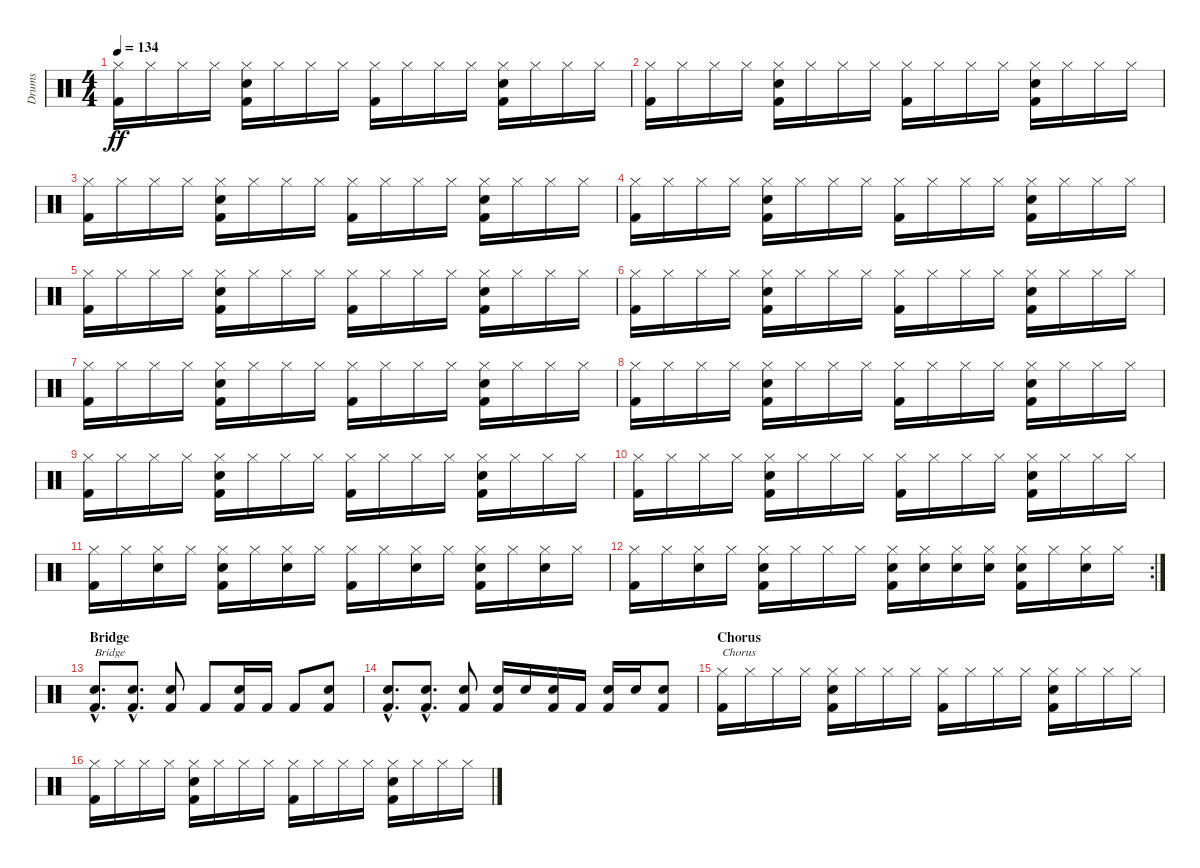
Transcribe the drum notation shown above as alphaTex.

\track ("Drums" "Drums") {instrument percussion}
\staff {score}
\articulation defaults
\ts (4 4)
\tempo 134
\clef neutral
\ks c
("Hi-Hat (closed)" "Kick (hit) 2").16{dy ff} "Hi-Hat (closed)".16 "Hi-Hat (closed)".16 "Hi-Hat (closed)".16 ("Hi-Hat (closed)" "Snare (hit) 2" "Kick (hit) 2").16 "Hi-Hat (closed)".16 "Hi-Hat (closed)".16 "Hi-Hat (closed)".16 ("Hi-Hat (closed)" "Kick (hit) 2").16 "Hi-Hat (closed)".16 "Hi-Hat (closed)".16 "Hi-Hat (closed)".16 ("Hi-Hat (closed)" "Snare (hit) 2" "Kick (hit) 2").16 "Hi-Hat (closed)".16 "Hi-Hat (closed)".16 "Hi-Hat (closed)".16 |
("Hi-Hat (closed)" "Kick (hit) 2").16 "Hi-Hat (closed)".16 "Hi-Hat (closed)".16 "Hi-Hat (closed)".16 ("Hi-Hat (closed)" "Snare (hit) 2" "Kick (hit) 2").16 "Hi-Hat (closed)".16 "Hi-Hat (closed)".16 "Hi-Hat (closed)".16 ("Hi-Hat (closed)" "Kick (hit) 2").16 "Hi-Hat (closed)".16 "Hi-Hat (closed)".16 "Hi-Hat (closed)".16 ("Hi-Hat (closed)" "Snare (hit) 2" "Kick (hit) 2").16 "Hi-Hat (closed)".16 "Hi-Hat (closed)".16 "Hi-Hat (closed)".16 |
("Hi-Hat (closed)" "Kick (hit) 2").16 "Hi-Hat (closed)".16 "Hi-Hat (closed)".16 "Hi-Hat (closed)".16 ("Hi-Hat (closed)" "Snare (hit) 2" "Kick (hit) 2").16 "Hi-Hat (closed)".16 "Hi-Hat (closed)".16 "Hi-Hat (closed)".16 ("Hi-Hat (closed)" "Kick (hit) 2").16 "Hi-Hat (closed)".16 "Hi-Hat (closed)".16 "Hi-Hat (closed)".16 ("Hi-Hat (closed)" "Snare (hit) 2" "Kick (hit) 2").16 "Hi-Hat (closed)".16 "Hi-Hat (closed)".16 "Hi-Hat (closed)".16 |
("Hi-Hat (closed)" "Kick (hit) 2").16 "Hi-Hat (closed)".16 "Hi-Hat (closed)".16 "Hi-Hat (closed)".16 ("Hi-Hat (closed)" "Snare (hit) 2" "Kick (hit) 2").16 "Hi-Hat (closed)".16 "Hi-Hat (closed)".16 "Hi-Hat (closed)".16 ("Hi-Hat (closed)" "Kick (hit) 2").16 "Hi-Hat (closed)".16 "Hi-Hat (closed)".16 "Hi-Hat (closed)".16 ("Hi-Hat (closed)" "Snare (hit) 2" "Kick (hit) 2").16 "Hi-Hat (closed)".16 "Hi-Hat (closed)".16 "Hi-Hat (closed)".16 |
("Hi-Hat (closed)" "Kick (hit) 2").16 "Hi-Hat (closed)".16 "Hi-Hat (closed)".16 "Hi-Hat (closed)".16 ("Hi-Hat (closed)" "Snare (hit) 2" "Kick (hit) 2").16 "Hi-Hat (closed)".16 "Hi-Hat (closed)".16 "Hi-Hat (closed)".16 ("Hi-Hat (closed)" "Kick (hit) 2").16 "Hi-Hat (closed)".16 "Hi-Hat (closed)".16 "Hi-Hat (closed)".16 ("Hi-Hat (closed)" "Snare (hit) 2" "Kick (hit) 2").16 "Hi-Hat (closed)".16 "Hi-Hat (closed)".16 "Hi-Hat (closed)".16 |
("Hi-Hat (closed)" "Kick (hit) 2").16 "Hi-Hat (closed)".16 "Hi-Hat (closed)".16 "Hi-Hat (closed)".16 ("Hi-Hat (closed)" "Snare (hit) 2" "Kick (hit) 2").16 "Hi-Hat (closed)".16 "Hi-Hat (closed)".16 "Hi-Hat (closed)".16 ("Hi-Hat (closed)" "Kick (hit) 2").16 "Hi-Hat (closed)".16 "Hi-Hat (closed)".16 "Hi-Hat (closed)".16 ("Hi-Hat (closed)" "Snare (hit) 2" "Kick (hit) 2").16 "Hi-Hat (closed)".16 "Hi-Hat (closed)".16 "Hi-Hat (closed)".16 |
("Hi-Hat (closed)" "Kick (hit) 2").16 "Hi-Hat (closed)".16 "Hi-Hat (closed)".16 "Hi-Hat (closed)".16 ("Hi-Hat (closed)" "Snare (hit) 2" "Kick (hit) 2").16 "Hi-Hat (closed)".16 "Hi-Hat (closed)".16 "Hi-Hat (closed)".16 ("Hi-Hat (closed)" "Kick (hit) 2").16 "Hi-Hat (closed)".16 "Hi-Hat (closed)".16 "Hi-Hat (closed)".16 ("Hi-Hat (closed)" "Snare (hit) 2" "Kick (hit) 2").16 "Hi-Hat (closed)".16 "Hi-Hat (closed)".16 "Hi-Hat (closed)".16 |
("Hi-Hat (closed)" "Kick (hit) 2").16 "Hi-Hat (closed)".16 "Hi-Hat (closed)".16 "Hi-Hat (closed)".16 ("Hi-Hat (closed)" "Snare (hit) 2" "Kick (hit) 2").16 "Hi-Hat (closed)".16 "Hi-Hat (closed)".16 "Hi-Hat (closed)".16 ("Hi-Hat (closed)" "Kick (hit) 2").16 "Hi-Hat (closed)".16 "Hi-Hat (closed)".16 "Hi-Hat (closed)".16 ("Hi-Hat (closed)" "Snare (hit) 2" "Kick (hit) 2").16 "Hi-Hat (closed)".16 "Hi-Hat (closed)".16 "Hi-Hat (closed)".16 |
("Hi-Hat (closed)" "Kick (hit) 2").16 "Hi-Hat (closed)".16 "Hi-Hat (closed)".16 "Hi-Hat (closed)".16 ("Hi-Hat (closed)" "Snare (hit) 2" "Kick (hit) 2").16 "Hi-Hat (closed)".16 "Hi-Hat (closed)".16 "Hi-Hat (closed)".16 ("Hi-Hat (closed)" "Kick (hit) 2").16 "Hi-Hat (closed)".16 "Hi-Hat (closed)".16 "Hi-Hat (closed)".16 ("Hi-Hat (closed)" "Snare (hit) 2" "Kick (hit) 2").16 "Hi-Hat (closed)".16 "Hi-Hat (closed)".16 "Hi-Hat (closed)".16 |
("Hi-Hat (closed)" "Kick (hit) 2").16 "Hi-Hat (closed)".16 "Hi-Hat (closed)".16 "Hi-Hat (closed)".16 ("Hi-Hat (closed)" "Snare (hit) 2" "Kick (hit) 2").16 "Hi-Hat (closed)".16 "Hi-Hat (closed)".16 "Hi-Hat (closed)".16 ("Hi-Hat (closed)" "Kick (hit) 2").16 "Hi-Hat (closed)".16 "Hi-Hat (closed)".16 "Hi-Hat (closed)".16 ("Hi-Hat (closed)" "Snare (hit) 2" "Kick (hit) 2").16 "Hi-Hat (closed)".16 "Hi-Hat (closed)".16 "Hi-Hat (closed)".16 |
("Hi-Hat (closed)" "Kick (hit) 2").16 "Hi-Hat (closed)".16 ("Hi-Hat (closed)" "Snare (hit) 2").16 "Hi-Hat (closed)".16 ("Hi-Hat (closed)" "Snare (hit) 2" "Kick (hit) 2").16 "Hi-Hat (closed)".16 ("Hi-Hat (closed)" "Snare (hit) 2").16 "Hi-Hat (closed)".16 ("Hi-Hat (closed)" "Kick (hit) 2").16 "Hi-Hat (closed)".16 ("Hi-Hat (closed)" "Snare (hit) 2").16 "Hi-Hat (closed)".16 ("Hi-Hat (closed)" "Snare (hit) 2" "Kick (hit) 2").16 "Hi-Hat (closed)".16 ("Hi-Hat (closed)" "Snare (hit) 2").16 "Hi-Hat (closed)".16 |
\rc 2
("Hi-Hat (closed)" "Kick (hit) 2").16 "Hi-Hat (closed)".16 ("Hi-Hat (closed)" "Snare (hit) 2").16 "Hi-Hat (closed)".16 ("Hi-Hat (closed)" "Snare (hit) 2" "Kick (hit) 2").16 "Hi-Hat (closed)".16 "Hi-Hat (closed)".16 "Hi-Hat (closed)".16 ("Hi-Hat (closed)" "Snare (hit) 2" "Kick (hit) 2").16 ("Hi-Hat (closed)" "Snare (hit) 2").16 ("Hi-Hat (closed)" "Snare (hit) 2").16 ("Hi-Hat (closed)" "Snare (hit) 2").16 ("Hi-Hat (closed)" "Snare (hit) 2" "Kick (hit) 2").16 "Hi-Hat (closed)".16 ("Hi-Hat (closed)" "Snare (hit) 2").16 "Hi-Hat (closed)".16 |
\section ("" "Bridge")
("Snare (hit) 2"{hac} "Kick (hit) 2"{hac}).8{d txt "Bridge"} ("Snare (hit) 2"{hac} "Kick (hit) 2"{hac}).8{d} ("Snare (hit) 2" "Kick (hit) 2").8 "Kick (hit) 2".8 ("Snare (hit) 2" "Kick (hit) 2").16 "Kick (hit) 2".16 "Kick (hit) 2".8 ("Snare (hit) 2" "Kick (hit) 2").8 |
("Snare (hit) 2"{hac} "Kick (hit) 2"{hac}).8{d} ("Snare (hit) 2"{hac} "Kick (hit) 2"{hac}).8{d} ("Snare (hit) 2" "Kick (hit) 2").8 ("Snare (hit) 2" "Kick (hit) 2").16 "Snare (hit) 2".16 ("Snare (hit) 2" "Kick (hit) 2").16 "Kick (hit) 2".16 ("Snare (hit) 2" "Kick (hit) 2").16 "Snare (hit) 2".16 ("Snare (hit) 2" "Kick (hit) 2").8 |
\section ("" "Chorus")
("Hi-Hat (closed)" "Kick (hit) 2").16{txt "Chorus"} "Hi-Hat (closed)".16 "Hi-Hat (closed)".16 "Hi-Hat (closed)".16 ("Hi-Hat (closed)" "Snare (hit) 2" "Kick (hit) 2").16 "Hi-Hat (closed)".16 "Hi-Hat (closed)".16 "Hi-Hat (closed)".16 ("Hi-Hat (closed)" "Kick (hit) 2").16 "Hi-Hat (closed)".16 "Hi-Hat (closed)".16 "Hi-Hat (closed)".16 ("Hi-Hat (closed)" "Snare (hit) 2" "Kick (hit) 2").16 "Hi-Hat (closed)".16 "Hi-Hat (closed)".16 "Hi-Hat (closed)".16 |
("Hi-Hat (closed)" "Kick (hit) 2").16 "Hi-Hat (closed)".16 "Hi-Hat (closed)".16 "Hi-Hat (closed)".16 ("Hi-Hat (closed)" "Snare (hit) 2" "Kick (hit) 2").16 "Hi-Hat (closed)".16 "Hi-Hat (closed)".16 "Hi-Hat (closed)".16 ("Hi-Hat (closed)" "Kick (hit) 2").16 "Hi-Hat (closed)".16 "Hi-Hat (closed)".16 "Hi-Hat (closed)".16 ("Hi-Hat (closed)" "Snare (hit) 2" "Kick (hit) 2").16 "Hi-Hat (closed)".16 "Hi-Hat (closed)".16 "Hi-Hat (closed)".16
